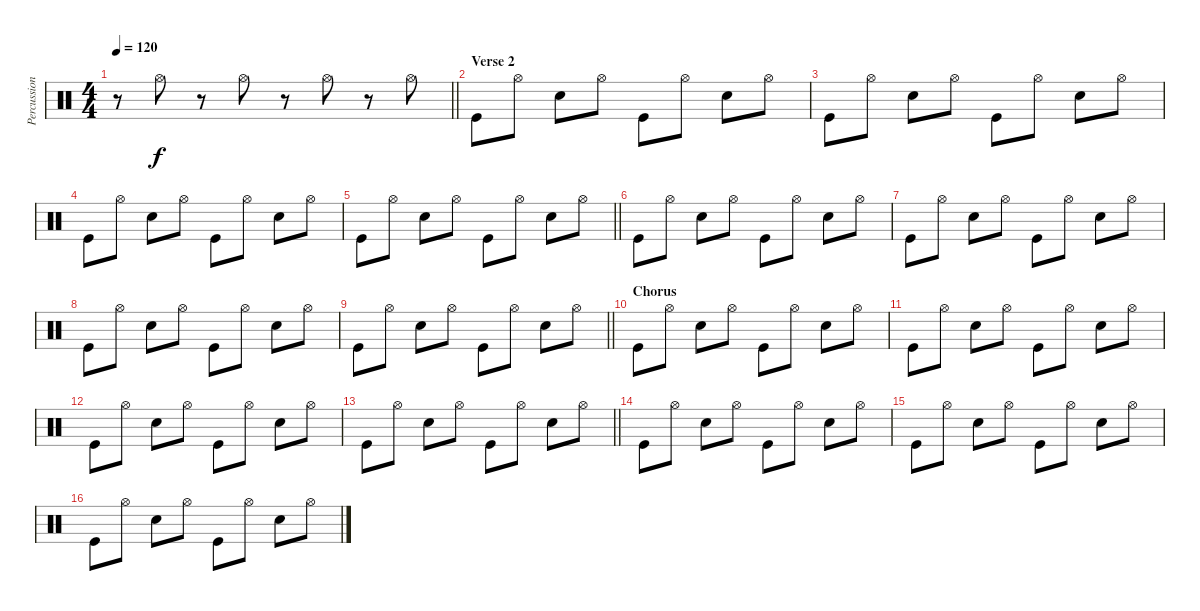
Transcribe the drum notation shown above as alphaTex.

\track ("Percussion" "Percussion") {instrument percussion}
\staff {score}
\articulation defaults
\ts (4 4)
\tempo 120
\clef neutral
\barLineRight lightlight
\ks c
r.8{dy f} "Hi-Hat (open)".8 r.8 "Hi-Hat (open)".8 r.8 "Hi-Hat (open)".8 r.8 "Hi-Hat (open)".8 |
\section ("" "Verse 2")
"Kick (hit)".8 "Hi-Hat (open)".8 "Snare (hit) 2".8 "Hi-Hat (open)".8 "Kick (hit)".8 "Hi-Hat (open)".8 "Snare (hit) 2".8 "Hi-Hat (open)".8 |
"Kick (hit)".8 "Hi-Hat (open)".8 "Snare (hit) 2".8 "Hi-Hat (open)".8 "Kick (hit)".8 "Hi-Hat (open)".8 "Snare (hit) 2".8 "Hi-Hat (open)".8 |
"Kick (hit)".8 "Hi-Hat (open)".8 "Snare (hit) 2".8 "Hi-Hat (open)".8 "Kick (hit)".8 "Hi-Hat (open)".8 "Snare (hit) 2".8 "Hi-Hat (open)".8 |
\barLineRight lightlight "Kick (hit)".8 "Hi-Hat (open)".8 "Snare (hit) 2".8 "Hi-Hat (open)".8 "Kick (hit)".8 "Hi-Hat (open)".8 "Snare (hit) 2".8 "Hi-Hat (open)".8
|
"Kick (hit)".8 "Hi-Hat (open)".8 "Snare (hit) 2".8 "Hi-Hat (open)".8 "Kick (hit)".8 "Hi-Hat (open)".8 "Snare (hit) 2".8 "Hi-Hat (open)".8 |
"Kick (hit)".8 "Hi-Hat (open)".8 "Snare (hit) 2".8 "Hi-Hat (open)".8 "Kick (hit)".8 "Hi-Hat (open)".8 "Snare (hit) 2".8 "Hi-Hat (open)".8 |
"Kick (hit)".8 "Hi-Hat (open)".8 "Snare (hit) 2".8 "Hi-Hat (open)".8 "Kick (hit)".8 "Hi-Hat (open)".8 "Snare (hit) 2".8 "Hi-Hat (open)".8 |
\barLineRight lightlight "Kick (hit)".8 "Hi-Hat (open)".8 "Snare (hit) 2".8 "Hi-Hat (open)".8 "Kick (hit)".8 "Hi-Hat (open)".8 "Snare (hit) 2".8 "Hi-Hat (open)".8
|
\section ("" "Chorus")
"Kick (hit)".8 "Hi-Hat (open)".8 "Snare (hit) 2".8 "Hi-Hat (open)".8 "Kick (hit)".8 "Hi-Hat (open)".8 "Snare (hit) 2".8 "Hi-Hat (open)".8 |
"Kick (hit)".8 "Hi-Hat (open)".8 "Snare (hit) 2".8 "Hi-Hat (open)".8 "Kick (hit)".8 "Hi-Hat (open)".8 "Snare (hit) 2".8 "Hi-Hat (open)".8 |
"Kick (hit)".8 "Hi-Hat (open)".8 "Snare (hit) 2".8 "Hi-Hat (open)".8 "Kick (hit)".8 "Hi-Hat (open)".8 "Snare (hit) 2".8 "Hi-Hat (open)".8 |
\barLineRight lightlight "Kick (hit)".8 "Hi-Hat (open)".8 "Snare (hit) 2".8 "Hi-Hat (open)".8 "Kick (hit)".8 "Hi-Hat (open)".8 "Snare (hit) 2".8 "Hi-Hat (open)".8
|
"Kick (hit)".8 "Hi-Hat (open)".8 "Snare (hit) 2".8 "Hi-Hat (open)".8 "Kick (hit)".8 "Hi-Hat (open)".8 "Snare (hit) 2".8 "Hi-Hat (open)".8 |
"Kick (hit)".8 "Hi-Hat (open)".8 "Snare (hit) 2".8 "Hi-Hat (open)".8 "Kick (hit)".8 "Hi-Hat (open)".8 "Snare (hit) 2".8 "Hi-Hat (open)".8 |
"Kick (hit)".8 "Hi-Hat (open)".8 "Snare (hit) 2".8 "Hi-Hat (open)".8 "Kick (hit)".8 "Hi-Hat (open)".8 "Snare (hit) 2".8 "Hi-Hat (open)".8
